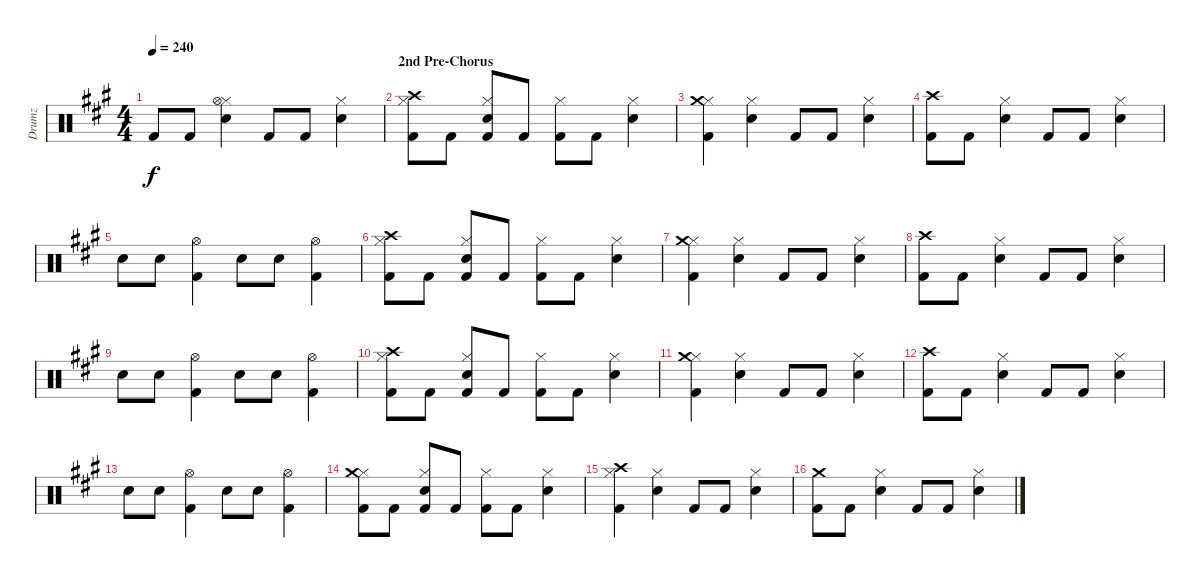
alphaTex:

\track ("Drumz" "Drumz") {instrument percussion}
\staff {score}
\articulation defaults
\ts (4 4)
\tempo 240
\clef neutral
\ks a "Kick (hit) 2".8{dy f} "Kick (hit) 2".8
("Hi-Hat (closed)" "Electric Snare (hit)" "Hi-Hat (open)").4 "Kick (hit) 2".8 "Kick (hit) 2".8 ("Electric Snare (hit)" "Hi-Hat (closed)").4 |
\section ("" "2nd Pre-Chorus")
("Hi-Hat (closed)" "Crash high (hit)" "Kick (hit) 2").8 "Kick (hit) 2".8 ("Hi-Hat (closed)" "Electric Snare (hit)" "Kick (hit) 2").8 "Kick (hit) 2".8 ("Hi-Hat (closed)" "Kick (hit) 2").8 "Kick (hit) 2".8 ("Hi-Hat (closed)" "Electric Snare (hit)").4 |
("Hi-Hat (closed)" "Crash medium (hit)" "Kick (hit) 2").4 ("Hi-Hat (closed)" "Electric Snare (hit)").4 "Kick (hit) 2".8 "Kick (hit) 2".8 ("Electric Snare (hit)" "Hi-Hat (closed)").4 |
("Kick (hit) 2" "Crash high (hit)").8 "Kick (hit) 2".8 ("Hi-Hat (closed)" "Electric Snare (hit)").4 "Kick (hit) 2".8 "Kick (hit) 2".8 ("Electric Snare (hit)" "Hi-Hat (closed)").4 |
"Electric Snare (hit)".8 "Electric Snare (hit)".8 ("Hi-Hat (open)" "Kick (hit) 2").4 "Electric Snare (hit)".8 "Electric Snare (hit)".8 ("Hi-Hat (open)" "Kick (hit) 2").4 |
("Hi-Hat (closed)" "Crash high (hit)" "Kick (hit) 2").8 "Kick (hit) 2".8 ("Hi-Hat (closed)" "Electric Snare (hit)" "Kick (hit) 2").8 "Kick (hit) 2".8 ("Hi-Hat (closed)" "Kick (hit) 2").8 "Kick (hit) 2".8 ("Hi-Hat (closed)" "Electric Snare (hit)").4 |
("Hi-Hat (closed)" "Crash medium (hit)" "Kick (hit) 2").4 ("Hi-Hat (closed)" "Electric Snare (hit)").4 "Kick (hit) 2".8 "Kick (hit) 2".8 ("Electric Snare (hit)" "Hi-Hat (closed)").4 |
("Kick (hit) 2" "Crash high (hit)").8 "Kick (hit) 2".8 ("Hi-Hat (closed)" "Electric Snare (hit)").4 "Kick (hit) 2".8 "Kick (hit) 2".8 ("Electric Snare (hit)" "Hi-Hat (closed)").4 |
"Electric Snare (hit)".8 "Electric Snare (hit)".8 ("Hi-Hat (open)" "Kick (hit) 2").4 "Electric Snare (hit)".8 "Electric Snare (hit)".8 ("Hi-Hat (open)" "Kick (hit) 2").4 |
("Hi-Hat (closed)" "Crash high (hit)" "Kick (hit) 2").8 "Kick (hit) 2".8 ("Hi-Hat (closed)" "Electric Snare (hit)" "Kick (hit) 2").8 "Kick (hit) 2".8 ("Hi-Hat (closed)" "Kick (hit) 2").8 "Kick (hit) 2".8 ("Hi-Hat (closed)" "Electric Snare (hit)").4 |
("Hi-Hat (closed)" "Crash medium (hit)" "Kick (hit) 2").4 ("Hi-Hat (closed)" "Electric Snare (hit)").4 "Kick (hit) 2".8 "Kick (hit) 2".8 ("Electric Snare (hit)" "Hi-Hat (closed)").4 |
("Kick (hit) 2" "Crash high (hit)").8 "Kick (hit) 2".8 ("Hi-Hat (closed)" "Electric Snare (hit)").4 "Kick (hit) 2".8 "Kick (hit) 2".8 ("Electric Snare (hit)" "Hi-Hat (closed)").4 |
"Electric Snare (hit)".8 "Electric Snare (hit)".8 ("Hi-Hat (open)" "Kick (hit) 2").4 "Electric Snare (hit)".8 "Electric Snare (hit)".8 ("Hi-Hat (open)" "Kick (hit) 2").4 |
("Hi-Hat (closed)" "Crash medium (hit)" "Kick (hit) 2").8 "Kick (hit) 2".8 ("Hi-Hat (closed)" "Electric Snare (hit)" "Kick (hit) 2").8 "Kick (hit) 2".8 ("Hi-Hat (closed)" "Kick (hit) 2").8 "Kick (hit) 2".8 ("Hi-Hat (closed)" "Electric Snare (hit)").4 |
("Hi-Hat (closed)" "Crash high (hit)" "Kick (hit) 2").4 ("Hi-Hat (closed)" "Electric Snare (hit)").4 "Kick (hit) 2".8 "Kick (hit) 2".8 ("Electric Snare (hit)" "Hi-Hat (closed)").4 |
("Kick (hit) 2" "Crash medium (hit)").8 "Kick (hit) 2".8 ("Hi-Hat (closed)" "Electric Snare (hit)").4 "Kick (hit) 2".8 "Kick (hit) 2".8 ("Electric Snare (hit)" "Hi-Hat (closed)").4
